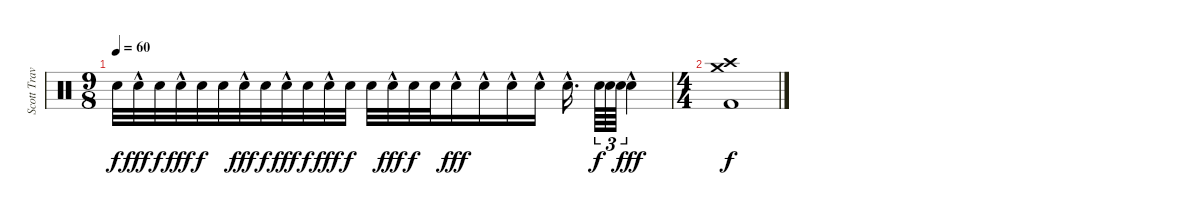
\track ("Scott Travis" "Scott Trav") {instrument percussion}
\staff {score}
\articulation defaults
\ts (9 8)
\tempo 60
\clef neutral
\ks c "Snare (hit) 2".32{dy f} "Snare (hit) 2"{hac}.32{dy fff} "Snare (hit) 2".32{dy f} "Snare (hit) 2"{hac}.32{dy fff} "Snare (hit) 2".32{dy f} "Snare (hit) 2".32 "Snare (hit) 2"{hac}.32{dy fff} "Snare (hit) 2".32{dy f} "Snare (hit) 2"{hac}.32{dy fff} "Snare (hit) 2".32{dy f} "Snare (hit) 2"{hac}.32{dy fff} "Snare (hit) 2".32{dy f} "Snare (hit) 2".32 "Snare (hit) 2"{hac}.32{dy fff} "Snare (hit) 2".32{dy f} "Snare (hit) 2".32 "Snare (hit) 2"{hac}.16{dy fff} "Snare (hit) 2"{hac}.16 "Snare (hit) 2"{hac}.16 "Snare (hit) 2"{hac}.16 "Snare (hit) 2"{hac}.16{d beam splitsecondary} "Snare (hit) 2".64{tu (3 2) dy f} "Snare (hit) 2".64{tu (3 2)} "Snare (hit) 2".64{tu (3 2)} "Snare (hit) 2"{hac}.4{dy fff}
|
\ts (4 4)
("Crash high (hit)" "Crash medium (hit)" "Kick (hit) 2").1{dy f}
